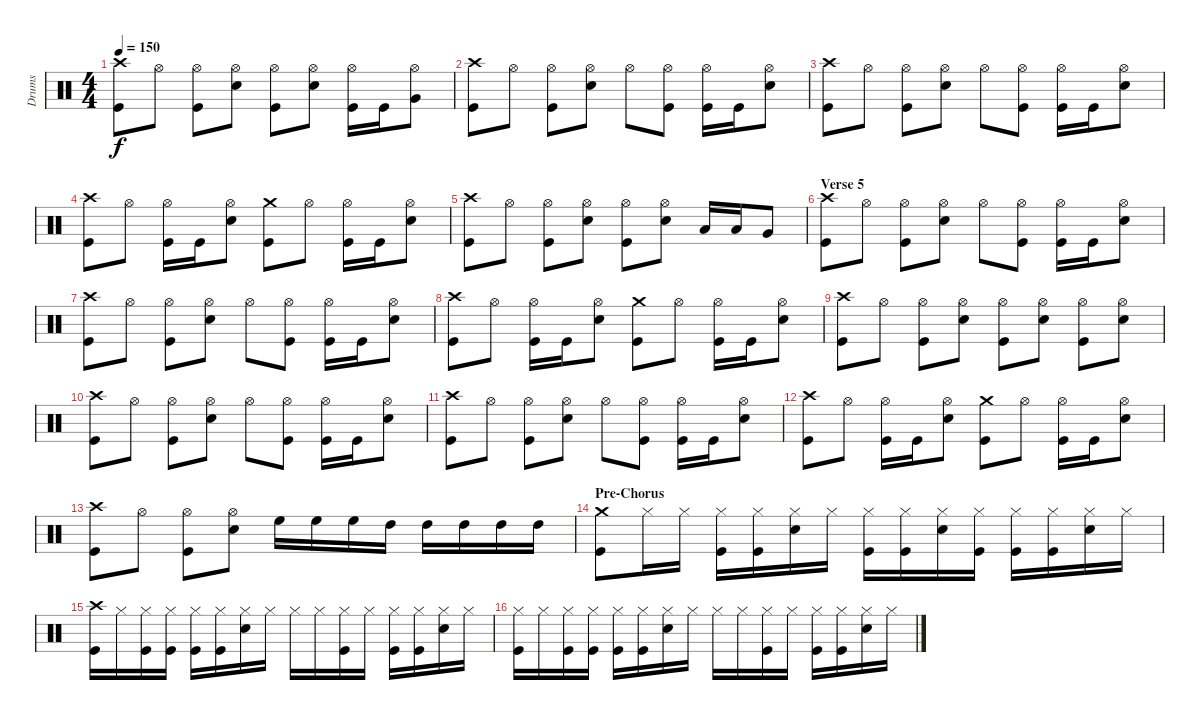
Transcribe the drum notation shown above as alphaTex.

\track ("Drums" "Drums") {instrument percussion}
\staff {score}
\articulation defaults
\ts (4 4)
\tempo 150
\clef neutral
\ks c
("Crash high (hit)" "Kick (hit)").8{dy f} "Hi-Hat (open)".8 ("Hi-Hat (open)" "Kick (hit)").8 ("Hi-Hat (open)" "Electric Snare (hit)").8 ("Hi-Hat (open)" "Kick (hit)").8 ("Hi-Hat (open)" "Electric Snare (hit)").8 ("Hi-Hat (open)" "Kick (hit)").16 "Kick (hit)".16 ("Hi-Hat (open)" "Very Low Tom (hit)").8 |
("Crash high (hit)" "Kick (hit)").8 "Hi-Hat (open)".8 ("Hi-Hat (open)" "Kick (hit)").8 ("Hi-Hat (open)" "Electric Snare (hit)").8 "Hi-Hat (open)".8 ("Hi-Hat (open)" "Kick (hit)").8 ("Hi-Hat (open)" "Kick (hit)").16 "Kick (hit)".16 ("Hi-Hat (open)" "Electric Snare (hit)").8 |
("Crash high (hit)" "Kick (hit)").8 "Hi-Hat (open)".8 ("Hi-Hat (open)" "Kick (hit)").8 ("Hi-Hat (open)" "Electric Snare (hit)").8 "Hi-Hat (open)".8 ("Hi-Hat (open)" "Kick (hit)").8 ("Hi-Hat (open)" "Kick (hit)").16 "Kick (hit)".16 ("Hi-Hat (open)" "Electric Snare (hit)").8 |
("Crash high (hit)" "Kick (hit)").8 "Hi-Hat (open)".8 ("Hi-Hat (open)" "Kick (hit)").16 "Kick (hit)".16 ("Hi-Hat (open)" "Electric Snare (hit)").8 ("Crash medium (hit)" "Kick (hit)").8 "Hi-Hat (open)".8 ("Hi-Hat (open)" "Kick (hit)").16 "Kick (hit)".16 ("Hi-Hat (open)" "Electric Snare (hit)").8 |
("Crash high (hit)" "Kick (hit)").8 "Hi-Hat (open)".8 ("Hi-Hat (open)" "Kick (hit)").8 ("Hi-Hat (open)" "Electric Snare (hit)").8 ("Hi-Hat (open)" "Kick (hit)").8 ("Hi-Hat (open)" "Electric Snare (hit)").8 "Low Tom (hit)".16 "Low Tom (hit)".16 "Very Low Tom (hit)".8 |
\section ("" "Verse 5")
("Crash high (hit)" "Kick (hit)").8 "Hi-Hat (open)".8 ("Hi-Hat (open)" "Kick (hit)").8 ("Hi-Hat (open)" "Electric Snare (hit)").8 "Hi-Hat (open)".8 ("Hi-Hat (open)" "Kick (hit)").8 ("Hi-Hat (open)" "Kick (hit)").16 "Kick (hit)".16 ("Hi-Hat (open)" "Electric Snare (hit)").8 |
("Crash high (hit)" "Kick (hit)").8 "Hi-Hat (open)".8 ("Hi-Hat (open)" "Kick (hit)").8 ("Hi-Hat (open)" "Electric Snare (hit)").8 "Hi-Hat (open)".8 ("Hi-Hat (open)" "Kick (hit)").8 ("Hi-Hat (open)" "Kick (hit)").16 "Kick (hit)".16 ("Hi-Hat (open)" "Electric Snare (hit)").8 |
("Crash high (hit)" "Kick (hit)").8 "Hi-Hat (open)".8 ("Hi-Hat (open)" "Kick (hit)").16 "Kick (hit)".16 ("Hi-Hat (open)" "Electric Snare (hit)").8 ("Crash medium (hit)" "Kick (hit)").8 "Hi-Hat (open)".8 ("Hi-Hat (open)" "Kick (hit)").16 "Kick (hit)".16 ("Hi-Hat (open)" "Electric Snare (hit)").8 |
("Crash high (hit)" "Kick (hit)").8 "Hi-Hat (open)".8 ("Hi-Hat (open)" "Kick (hit)").8 ("Hi-Hat (open)" "Electric Snare (hit)").8 ("Hi-Hat (open)" "Kick (hit)").8 ("Hi-Hat (open)" "Electric Snare (hit)").8 ("Hi-Hat (open)" "Kick (hit)").8 ("Hi-Hat (open)" "Electric Snare (hit)").8 |
("Crash high (hit)" "Kick (hit)").8 "Hi-Hat (open)".8 ("Hi-Hat (open)" "Kick (hit)").8 ("Hi-Hat (open)" "Electric Snare (hit)").8 "Hi-Hat (open)".8 ("Hi-Hat (open)" "Kick (hit)").8 ("Hi-Hat (open)" "Kick (hit)").16 "Kick (hit)".16 ("Hi-Hat (open)" "Electric Snare (hit)").8 |
("Crash high (hit)" "Kick (hit)").8 "Hi-Hat (open)".8 ("Hi-Hat (open)" "Kick (hit)").8 ("Hi-Hat (open)" "Electric Snare (hit)").8 "Hi-Hat (open)".8 ("Hi-Hat (open)" "Kick (hit)").8 ("Hi-Hat (open)" "Kick (hit)").16 "Kick (hit)".16 ("Hi-Hat (open)" "Electric Snare (hit)").8 |
("Crash high (hit)" "Kick (hit)").8 "Hi-Hat (open)".8 ("Hi-Hat (open)" "Kick (hit)").16 "Kick (hit)".16 ("Hi-Hat (open)" "Electric Snare (hit)").8 ("Crash medium (hit)" "Kick (hit)").8 "Hi-Hat (open)".8 ("Hi-Hat (open)" "Kick (hit)").16 "Kick (hit)".16 ("Hi-Hat (open)" "Electric Snare (hit)").8 |
("Crash high (hit)" "Kick (hit)").8 "Hi-Hat (open)".8 ("Hi-Hat (open)" "Kick (hit)").8 ("Hi-Hat (open)" "Electric Snare (hit)").8 "High Floor Tom (hit)".16 "High Floor Tom (hit)".16 "High Floor Tom (hit)".16 "High Tom (hit)".16 "High Tom (hit)".16 "High Tom (hit)".16 "High Tom (hit)".16 "High Tom (hit)".16 |
\section ("" "Pre-Chorus")
("Crash medium (hit)" "Kick (hit)").8 "Hi-Hat (closed)".16 "Hi-Hat (closed)".16 ("Hi-Hat (closed)" "Kick (hit)").16 ("Hi-Hat (closed)" "Kick (hit)").16 ("Hi-Hat (closed)" "Electric Snare (hit)").16 "Hi-Hat (closed)".16 ("Hi-Hat (closed)" "Kick (hit)").16 ("Hi-Hat (closed)" "Kick (hit)").16 ("Hi-Hat (closed)" "Electric Snare (hit)").16 ("Hi-Hat (closed)" "Kick (hit)").16 ("Hi-Hat (closed)" "Kick (hit)").16 ("Hi-Hat (closed)" "Kick (hit)").16 ("Hi-Hat (closed)" "Electric Snare (hit)").16 "Hi-Hat (closed)".16 |
("Crash high (hit)" "Kick (hit)").16 "Hi-Hat (closed)".16 ("Hi-Hat (closed)" "Kick (hit)").16 ("Hi-Hat (closed)" "Kick (hit)").16 ("Hi-Hat (closed)" "Kick (hit)").16 ("Hi-Hat (closed)" "Kick (hit)").16 ("Hi-Hat (closed)" "Electric Snare (hit)").16 "Hi-Hat (closed)".16 "Hi-Hat (closed)".16 "Hi-Hat (closed)".16 ("Hi-Hat (closed)" "Kick (hit)").16 "Hi-Hat (closed)".16 ("Hi-Hat (closed)" "Kick (hit)").16 ("Hi-Hat (closed)" "Kick (hit)").16 ("Hi-Hat (closed)" "Electric Snare (hit)").16 "Hi-Hat (closed)".16 |
("Hi-Hat (closed)" "Kick (hit)").16 "Hi-Hat (closed)".16 ("Hi-Hat (closed)" "Kick (hit)").16 ("Hi-Hat (closed)" "Kick (hit)").16 ("Hi-Hat (closed)" "Kick (hit)").16 ("Hi-Hat (closed)" "Kick (hit)").16 ("Hi-Hat (closed)" "Electric Snare (hit)").16 "Hi-Hat (closed)".16 "Hi-Hat (closed)".16 "Hi-Hat (closed)".16 ("Hi-Hat (closed)" "Kick (hit)").16 "Hi-Hat (closed)".16 ("Hi-Hat (closed)" "Kick (hit)").16 ("Hi-Hat (closed)" "Kick (hit)").16 ("Hi-Hat (closed)" "Electric Snare (hit)").16 "Hi-Hat (closed)".16
